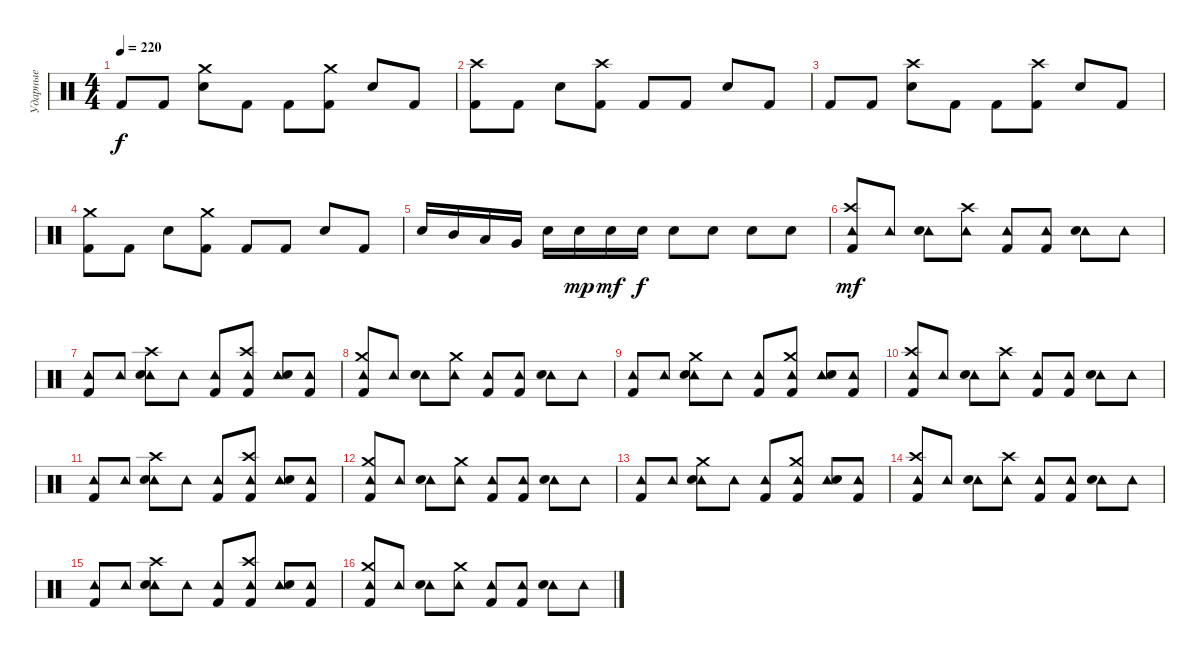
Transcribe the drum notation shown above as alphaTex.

\track ("Ударные" "Ударные") {instrument percussion}
\staff {score}
\articulation defaults
\ts (4 4)
\tempo 220
\clef neutral
\ks c "Kick (hit) 2".8{dy f} "Kick (hit) 2".8
("Crash medium (hit)" "Electric Snare (hit)").8 "Kick (hit) 2".8 "Kick (hit) 2".8 ("Crash medium (hit)" "Kick (hit) 2").8 "Electric Snare (hit)".8 "Kick (hit) 2".8 |
("Crash high (hit)" "Kick (hit) 2").8 "Kick (hit) 2".8 "Electric Snare (hit)".8 ("Crash high (hit)" "Kick (hit) 2").8 "Kick (hit) 2".8 "Kick (hit) 2".8 "Electric Snare (hit)".8 "Kick (hit) 2".8 |
"Kick (hit) 2".8 "Kick (hit) 2".8 ("Crash high (hit)" "Electric Snare (hit)").8 "Kick (hit) 2".8 "Kick (hit) 2".8 ("Crash high (hit)" "Kick (hit) 2").8 "Electric Snare (hit)".8 "Kick (hit) 2".8 |
("Crash medium (hit)" "Kick (hit) 2").8 "Kick (hit) 2".8 "Electric Snare (hit)".8 ("Crash medium (hit)" "Kick (hit) 2").8 "Kick (hit) 2".8 "Kick (hit) 2".8 "Electric Snare (hit)".8 "Kick (hit) 2".8 |
"Electric Snare (hit)".16 "Mid Tom (hit)".16 "Low Tom (hit)".16 "Very Low Tom (hit)".16 "Electric Snare (hit)".16 "Electric Snare (hit)".16{dy mp} "Electric Snare (hit)".16{dy mf} "Electric Snare (hit)".16{dy f} "Electric Snare (hit)".8 "Electric Snare (hit)".8 "Electric Snare (hit)".8 "Electric Snare (hit)".8 |
("Crash high (hit)" "Tambourine (hit)" "Kick (hit) 2").8{dy mf} "Tambourine (hit)".8 ("Tambourine (hit)" "Electric Snare (hit)").8 ("Crash high (hit)" "Tambourine (hit)").8 ("Tambourine (hit)" "Kick (hit) 2").8 ("Tambourine (hit)" "Kick (hit) 2").8 ("Tambourine (hit)" "Electric Snare (hit)").8 "Tambourine (hit)".8 |
("Tambourine (hit)" "Kick (hit) 2").8 "Tambourine (hit)".8 ("Crash high (hit)" "Tambourine (hit)" "Electric Snare (hit)").8 "Tambourine (hit)".8 ("Tambourine (hit)" "Kick (hit) 2").8 ("Crash high (hit)" "Tambourine (hit)" "Kick (hit) 2").8 ("Tambourine (hit)" "Electric Snare (hit)").8 ("Tambourine (hit)" "Kick (hit) 2").8 |
("Crash medium (hit)" "Tambourine (hit)" "Kick (hit) 2").8 "Tambourine (hit)".8 ("Tambourine (hit)" "Electric Snare (hit)").8 ("Crash medium (hit)" "Tambourine (hit)").8 ("Tambourine (hit)" "Kick (hit) 2").8 ("Tambourine (hit)" "Kick (hit) 2").8 ("Tambourine (hit)" "Electric Snare (hit)").8 "Tambourine (hit)".8 |
("Tambourine (hit)" "Kick (hit) 2").8 "Tambourine (hit)".8 ("Crash medium (hit)" "Tambourine (hit)" "Electric Snare (hit)").8 "Tambourine (hit)".8 ("Tambourine (hit)" "Kick (hit) 2").8 ("Crash medium (hit)" "Tambourine (hit)" "Kick (hit) 2").8 ("Tambourine (hit)" "Electric Snare (hit)").8 ("Tambourine (hit)" "Kick (hit) 2").8 |
("Crash high (hit)" "Tambourine (hit)" "Kick (hit) 2").8 "Tambourine (hit)".8 ("Tambourine (hit)" "Electric Snare (hit)").8 ("Crash high (hit)" "Tambourine (hit)").8 ("Tambourine (hit)" "Kick (hit) 2").8 ("Tambourine (hit)" "Kick (hit) 2").8 ("Tambourine (hit)" "Electric Snare (hit)").8 "Tambourine (hit)".8 |
("Tambourine (hit)" "Kick (hit) 2").8 "Tambourine (hit)".8 ("Crash high (hit)" "Tambourine (hit)" "Electric Snare (hit)").8 "Tambourine (hit)".8 ("Tambourine (hit)" "Kick (hit) 2").8 ("Crash high (hit)" "Tambourine (hit)" "Kick (hit) 2").8 ("Tambourine (hit)" "Electric Snare (hit)").8 ("Tambourine (hit)" "Kick (hit) 2").8 |
("Crash medium (hit)" "Tambourine (hit)" "Kick (hit) 2").8 "Tambourine (hit)".8 ("Tambourine (hit)" "Electric Snare (hit)").8 ("Crash medium (hit)" "Tambourine (hit)").8 ("Tambourine (hit)" "Kick (hit) 2").8 ("Tambourine (hit)" "Kick (hit) 2").8 ("Tambourine (hit)" "Electric Snare (hit)").8 "Tambourine (hit)".8 |
("Tambourine (hit)" "Kick (hit) 2").8 "Tambourine (hit)".8 ("Crash medium (hit)" "Tambourine (hit)" "Electric Snare (hit)").8 "Tambourine (hit)".8 ("Tambourine (hit)" "Kick (hit) 2").8 ("Crash medium (hit)" "Tambourine (hit)" "Kick (hit) 2").8 ("Tambourine (hit)" "Electric Snare (hit)").8 ("Tambourine (hit)" "Kick (hit) 2").8 |
("Crash high (hit)" "Tambourine (hit)" "Kick (hit) 2").8 "Tambourine (hit)".8 ("Tambourine (hit)" "Electric Snare (hit)").8 ("Crash high (hit)" "Tambourine (hit)").8 ("Tambourine (hit)" "Kick (hit) 2").8 ("Tambourine (hit)" "Kick (hit) 2").8 ("Tambourine (hit)" "Electric Snare (hit)").8 "Tambourine (hit)".8 |
("Tambourine (hit)" "Kick (hit) 2").8 "Tambourine (hit)".8 ("Crash high (hit)" "Tambourine (hit)" "Electric Snare (hit)").8 "Tambourine (hit)".8 ("Tambourine (hit)" "Kick (hit) 2").8 ("Crash high (hit)" "Tambourine (hit)" "Kick (hit) 2").8 ("Tambourine (hit)" "Electric Snare (hit)").8 ("Tambourine (hit)" "Kick (hit) 2").8 |
("Crash medium (hit)" "Tambourine (hit)" "Kick (hit) 2").8 "Tambourine (hit)".8 ("Tambourine (hit)" "Electric Snare (hit)").8 ("Crash medium (hit)" "Tambourine (hit)").8 ("Tambourine (hit)" "Kick (hit) 2").8 ("Tambourine (hit)" "Kick (hit) 2").8 ("Tambourine (hit)" "Electric Snare (hit)").8 "Tambourine (hit)".8
